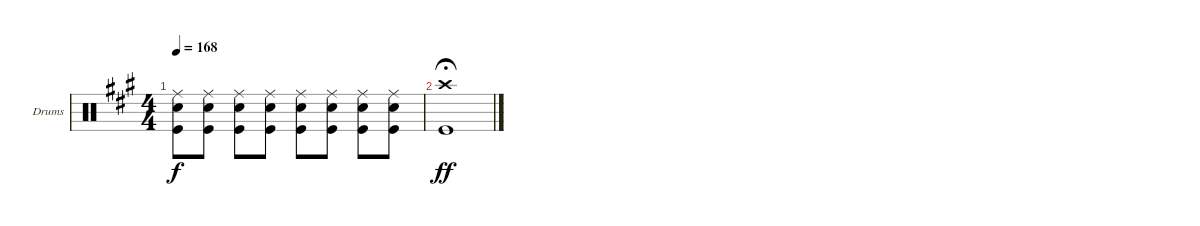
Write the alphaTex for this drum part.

\defaultSystemsLayout 4
\bracketExtendMode groupsimilarinstruments
\firstSystemTrackNameOrientation horizontal
\otherSystemsTrackNameOrientation horizontal
\track ("Drumkit" "Drums") {instrument percussion}
\staff {score}
\articulation defaults
\ts (4 4)
\tempo 168
\clef neutral
\scale
1.05801
\ks a
("Ride (middle)" "Snare (hit) 2" "Kick (hit)").8{dy f} ("Ride (middle)" "Snare (hit) 2" "Kick (hit)").8 ("Ride (middle)" "Snare (hit) 2" "Kick (hit)").8 ("Ride (middle)" "Snare (hit) 2" "Kick (hit)").8 ("Ride (middle)" "Snare (hit) 2" "Kick (hit)").8 ("Ride (middle)" "Snare (hit) 2" "Kick (hit)").8 ("Ride (middle)" "Snare (hit) 2" "Kick (hit)").8 ("Ride (middle)" "Snare (hit) 2" "Kick (hit)").8 |
\scale
0.941992 ("Crash high (hit)" "Kick (hit)").1{dy ff fermata (medium 1)}
